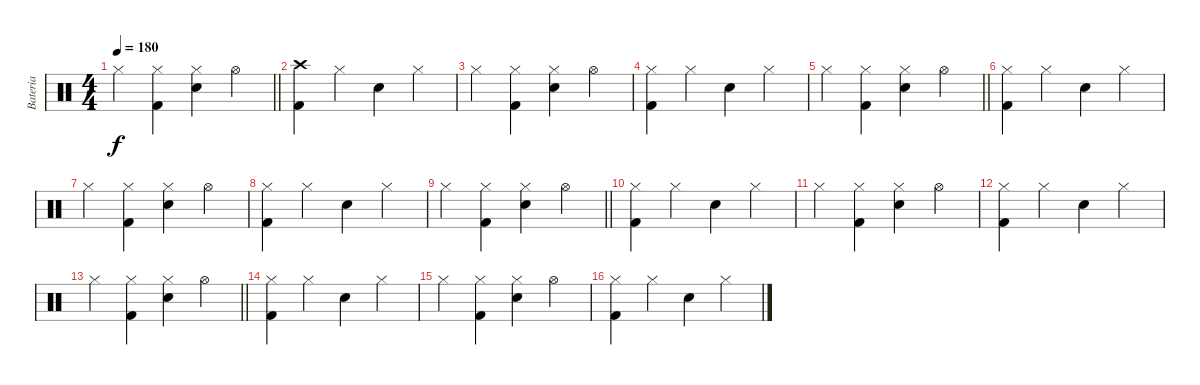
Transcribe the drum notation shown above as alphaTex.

\track ("Bateria" "Bateria") {instrument percussion}
\staff {score}
\articulation defaults
\ts (4 4)
\tempo 180
\clef neutral
\barLineRight lightlight
\ks c "Hi-Hat (closed)".4{dy f}
("Hi-Hat (closed)" "Kick (hit) 2").4 ("Hi-Hat (closed)" "Electric Snare (hit)").4 "Hi-Hat (open)".4 |
\section ("" "")
("Crash high (hit)" "Kick (hit) 2").4 "Hi-Hat (closed)".4 "Electric Snare (hit)".4 "Hi-Hat (closed)".4 |
"Hi-Hat (closed)".4 ("Hi-Hat (closed)" "Kick (hit) 2").4 ("Hi-Hat (closed)" "Electric Snare (hit)").4 "Hi-Hat (open)".4 |
("Hi-Hat (closed)" "Kick (hit) 2").4 "Hi-Hat (closed)".4 "Electric Snare (hit)".4 "Hi-Hat (closed)".4 |
\barLineRight lightlight "Hi-Hat (closed)".4
("Hi-Hat (closed)" "Kick (hit) 2").4 ("Hi-Hat (closed)" "Electric Snare (hit)").4 "Hi-Hat (open)".4 |
\section ("" "")
("Hi-Hat (closed)" "Kick (hit) 2").4 "Hi-Hat (closed)".4 "Electric Snare (hit)".4 "Hi-Hat (closed)".4 |
"Hi-Hat (closed)".4 ("Hi-Hat (closed)" "Kick (hit) 2").4 ("Hi-Hat (closed)" "Electric Snare (hit)").4 "Hi-Hat (open)".4 |
("Hi-Hat (closed)" "Kick (hit) 2").4 "Hi-Hat (closed)".4 "Electric Snare (hit)".4 "Hi-Hat (closed)".4 |
\barLineRight lightlight "Hi-Hat (closed)".4
("Hi-Hat (closed)" "Kick (hit) 2").4 ("Hi-Hat (closed)" "Electric Snare (hit)").4 "Hi-Hat (open)".4 |
("Hi-Hat (closed)" "Kick (hit) 2").4 "Hi-Hat (closed)".4 "Electric Snare (hit)".4 "Hi-Hat (closed)".4 |
"Hi-Hat (closed)".4 ("Hi-Hat (closed)" "Kick (hit) 2").4 ("Hi-Hat (closed)" "Electric Snare (hit)").4 "Hi-Hat (open)".4 |
("Hi-Hat (closed)" "Kick (hit) 2").4 "Hi-Hat (closed)".4 "Electric Snare (hit)".4 "Hi-Hat (closed)".4 |
\barLineRight lightlight "Hi-Hat (closed)".4
("Hi-Hat (closed)" "Kick (hit) 2").4 ("Hi-Hat (closed)" "Electric Snare (hit)").4 "Hi-Hat (open)".4 |
("Hi-Hat (closed)" "Kick (hit) 2").4 "Hi-Hat (closed)".4 "Electric Snare (hit)".4 "Hi-Hat (closed)".4 |
"Hi-Hat (closed)".4 ("Hi-Hat (closed)" "Kick (hit) 2").4 ("Hi-Hat (closed)" "Electric Snare (hit)").4 "Hi-Hat (open)".4 |
("Hi-Hat (closed)" "Kick (hit) 2").4 "Hi-Hat (closed)".4 "Electric Snare (hit)".4 "Hi-Hat (closed)".4
